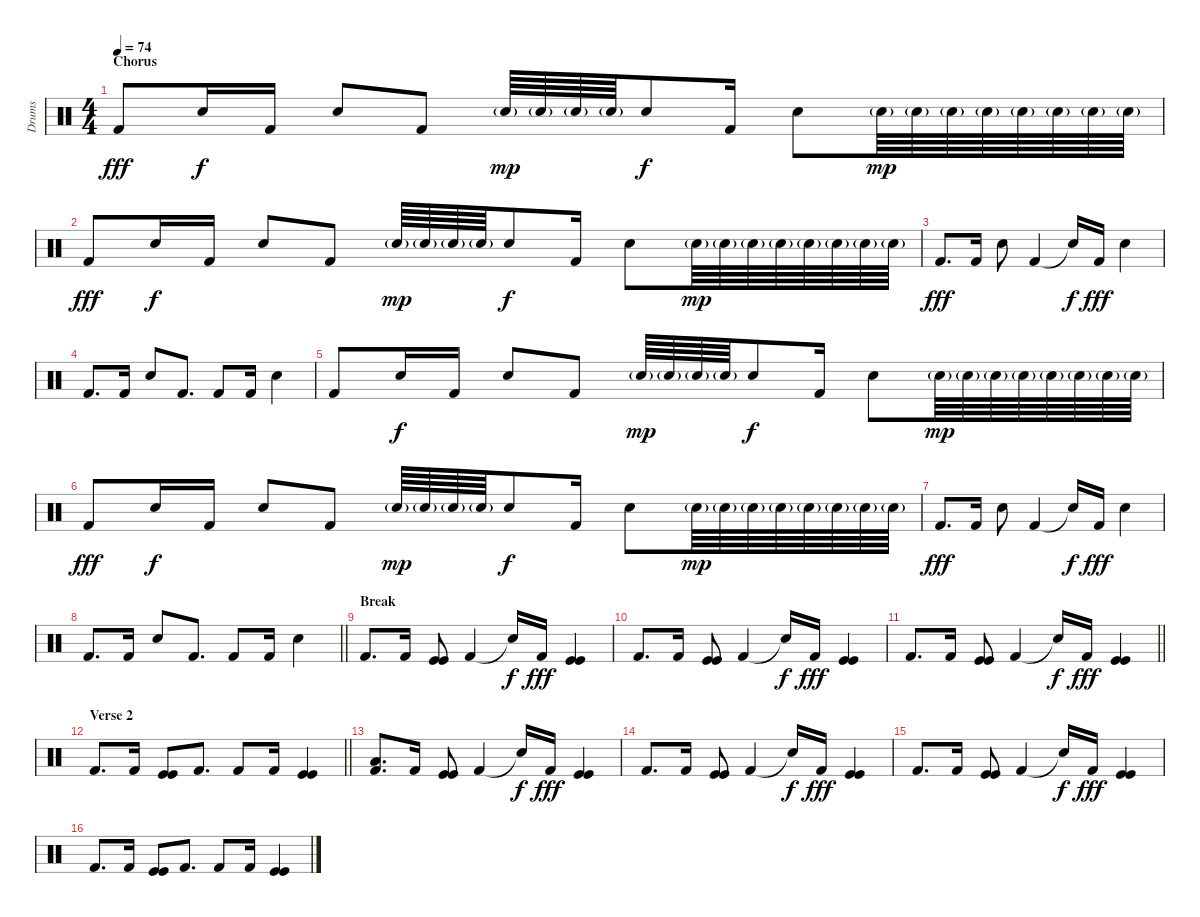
\track ("Drums" "Drums") {instrument percussion}
\staff {score}
\articulation defaults
\ts (4 4)
\section ("" "Chorus")
\tempo 74
\clef neutral
\ks c "Kick (hit) 2".8{dy fff} "Snare (hit) 2".16{dy f} "Kick (hit) 2".16 "Snare (hit) 2".8 "Kick (hit) 2".8 "Electric Snare (hit)"{g}.64{dy mp} "Electric Snare (hit)"{g}.64 "Electric Snare (hit)"{g}.64 "Electric Snare (hit)"{g}.64 "Snare (hit) 2".8{dy f} "Kick (hit) 2".16 "Snare (hit) 2".8 "Electric Snare (hit)"{g}.64{dy mp} "Electric Snare (hit)"{g}.64 "Electric Snare (hit)"{g}.64 "Electric Snare (hit)"{g}.64 "Electric Snare (hit)"{g}.64 "Electric Snare (hit)"{g}.64 "Electric Snare (hit)"{g}.64 "Electric Snare (hit)"{g}.64
|
"Kick (hit) 2".8{dy fff} "Snare (hit) 2".16{dy f} "Kick (hit) 2".16 "Snare (hit) 2".8 "Kick (hit) 2".8 "Electric Snare (hit)"{g}.64{dy mp} "Electric Snare (hit)"{g}.64 "Electric Snare (hit)"{g}.64 "Electric Snare (hit)"{g}.64 "Snare (hit) 2".8{dy f} "Kick (hit) 2".16 "Snare (hit) 2".8 "Electric Snare (hit)"{g}.64{dy mp} "Electric Snare (hit)"{g}.64 "Electric Snare (hit)"{g}.64 "Electric Snare (hit)"{g}.64 "Electric Snare (hit)"{g}.64 "Electric Snare (hit)"{g}.64 "Electric Snare (hit)"{g}.64 "Electric Snare (hit)"{g}.64 |
"Kick (hit) 2".8{d dy fff} "Kick (hit) 2".16 "Snare (hit) 2".8 "Kick (hit) 2".4 "Snare (hit)"{t}.16{dy f} "Kick (hit) 2".16{dy fff} "Snare (hit) 2".4 |
"Kick (hit) 2".8{d} "Kick (hit) 2".16 "Snare (hit) 2".8 "Kick (hit) 2".8{d} "Kick (hit) 2".8 "Kick (hit) 2".16 "Snare (hit) 2".4 |
"Kick (hit) 2".8 "Snare (hit) 2".16{dy f} "Kick (hit) 2".16 "Snare (hit) 2".8 "Kick (hit) 2".8 "Electric Snare (hit)"{g}.64{dy mp} "Electric Snare (hit)"{g}.64 "Electric Snare (hit)"{g}.64 "Electric Snare (hit)"{g}.64 "Snare (hit) 2".8{dy f} "Kick (hit) 2".16 "Snare (hit) 2".8 "Electric Snare (hit)"{g}.64{dy mp} "Electric Snare (hit)"{g}.64 "Electric Snare (hit)"{g}.64 "Electric Snare (hit)"{g}.64 "Electric Snare (hit)"{g}.64 "Electric Snare (hit)"{g}.64 "Electric Snare (hit)"{g}.64 "Electric Snare (hit)"{g}.64 |
"Kick (hit) 2".8{dy fff} "Snare (hit) 2".16{dy f} "Kick (hit) 2".16 "Snare (hit) 2".8 "Kick (hit) 2".8 "Electric Snare (hit)"{g}.64{dy mp} "Electric Snare (hit)"{g}.64 "Electric Snare (hit)"{g}.64 "Electric Snare (hit)"{g}.64 "Snare (hit) 2".8{dy f} "Kick (hit) 2".16 "Snare (hit) 2".8 "Electric Snare (hit)"{g}.64{dy mp} "Electric Snare (hit)"{g}.64 "Electric Snare (hit)"{g}.64 "Electric Snare (hit)"{g}.64 "Electric Snare (hit)"{g}.64 "Electric Snare (hit)"{g}.64 "Electric Snare (hit)"{g}.64 "Electric Snare (hit)"{g}.64 |
"Kick (hit) 2".8{d dy fff} "Kick (hit) 2".16 "Snare (hit) 2".8 "Kick (hit) 2".4 "Snare (hit)"{t}.16{dy f} "Kick (hit) 2".16{dy fff} "Snare (hit) 2".4 |
\barLineRight lightlight "Kick (hit) 2".8{d} "Kick (hit) 2".16 "Snare (hit) 2".8 "Kick (hit) 2".8{d} "Kick (hit) 2".8 "Kick (hit) 2".16 "Snare (hit) 2".4
|
\section ("" "Break")
"Kick (hit) 2".8{d} "Kick (hit) 2".16 ("Kick (hit)" "Kick (hit)").8 "Kick (hit) 2".4 "Snare (hit)"{t}.16{dy f} "Kick (hit) 2".16{dy fff} ("Kick (hit)" "Kick (hit)").4 |
"Kick (hit) 2".8{d} "Kick (hit) 2".16 ("Kick (hit)" "Kick (hit)").8 "Kick (hit) 2".4 "Snare (hit)"{t}.16{dy f} "Kick (hit) 2".16{dy fff} ("Kick (hit)" "Kick (hit)").4 |
\barLineRight lightlight "Kick (hit) 2".8{d} "Kick (hit) 2".16
("Kick (hit)" "Kick (hit)").8 "Kick (hit) 2".4 "Snare (hit)"{t}.16{dy f} "Kick (hit) 2".16{dy fff} ("Kick (hit)" "Kick (hit)").4 |
\section ("" "Verse 2")
\barLineRight lightlight "Kick (hit) 2".8{d} "Kick (hit) 2".16
("Kick (hit)" "Kick (hit)").8 "Kick (hit) 2".8{d} "Kick (hit) 2".8 "Kick (hit) 2".16 ("Kick (hit)" "Kick (hit)").4 |
("Low Floor Tom (hit)" "Kick (hit) 2").8{d} "Kick (hit) 2".16 ("Kick (hit)" "Kick (hit)").8 "Kick (hit) 2".4 "Snare (hit)"{t}.16{dy f} "Kick (hit) 2".16{dy fff} ("Kick (hit)" "Kick (hit)").4 |
"Kick (hit) 2".8{d} "Kick (hit) 2".16 ("Kick (hit)" "Kick (hit)").8 "Kick (hit) 2".4 "Snare (hit)"{t}.16{dy f} "Kick (hit) 2".16{dy fff} ("Kick (hit)" "Kick (hit)").4 |
"Kick (hit) 2".8{d} "Kick (hit) 2".16 ("Kick (hit)" "Kick (hit)").8 "Kick (hit) 2".4 "Snare (hit)"{t}.16{dy f} "Kick (hit) 2".16{dy fff} ("Kick (hit)" "Kick (hit)").4 |
"Kick (hit) 2".8{d} "Kick (hit) 2".16 ("Kick (hit)" "Kick (hit)").8 "Kick (hit) 2".8{d} "Kick (hit) 2".8 "Kick (hit) 2".16 ("Kick (hit)" "Kick (hit)").4
